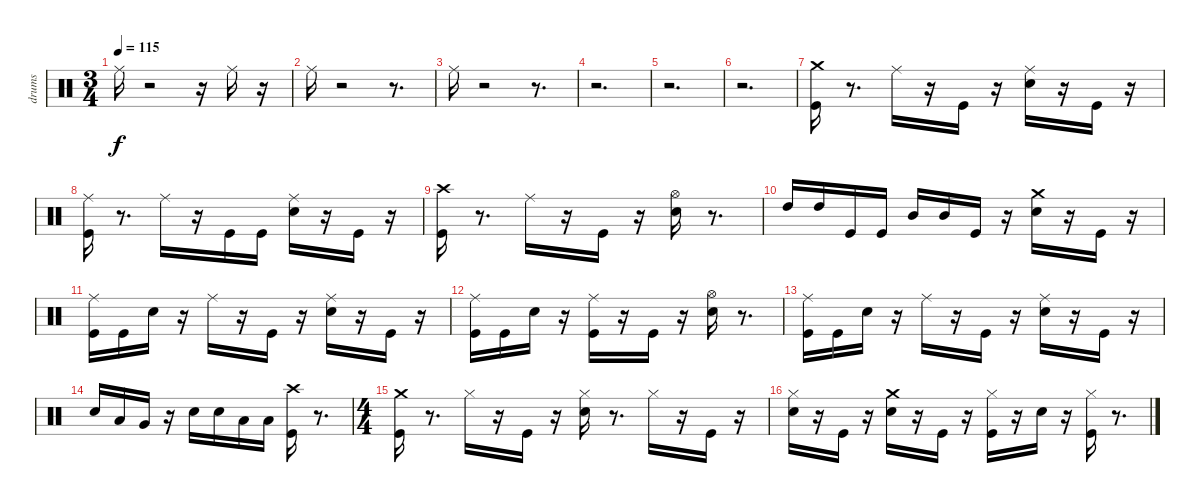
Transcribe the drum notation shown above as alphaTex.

\track ("drums" "drums") {instrument percussion}
\staff {score}
\articulation defaults
\ts (3 4)
\tempo 115
\clef neutral
\ks c "Ride (middle)".16{dy f}
r.2 r.16 "Ride (middle)".16 r.16 |
"Ride (middle)".16 r.2 r.8{d} |
"Ride (middle)".16 r.2 r.8{d} |
r.2{d} |
r.2{d} |
r.2{d} |
("Crash medium (hit)" "Kick (hit)").16 r.8{d} "Ride (middle)".16 r.16 "Kick (hit)".16 r.16 ("Ride (middle)" "Electric Snare (hit)").16 r.16 "Kick (hit)".16 r.16 |
("Ride (middle)" "Kick (hit)").16 r.8{d} "Ride (middle)".16 r.16 "Kick (hit)".16 "Kick (hit)".16 ("Ride (middle)" "Electric Snare (hit)").16 r.16 "Kick (hit)".16 r.16 |
("Crash high (hit)" "Kick (hit)").16 r.8{d} "Ride (middle)".16 r.16 "Kick (hit)".16 r.16 ("Hi-Hat (open)" "Electric Snare (hit)").16 r.8{d} |
"High Tom (hit)".16 "High Tom (hit)".16 "Kick (hit)".16 "Kick (hit)".16 "Mid Tom (hit)".16 "Mid Tom (hit)".16 "Kick (hit)".16 r.16 ("Crash medium (hit)" "Electric Snare (hit)").16 r.16 "Kick (hit)".16 r.16 |
("Ride (middle)" "Kick (hit)").16 "Kick (hit)".16 "Electric Snare (hit)".16 r.16 "Ride (middle)".16 r.16 "Kick (hit)".16 r.16 ("Electric Snare (hit)" "Ride (middle)").16 r.16 "Kick (hit)".16 r.16 |
("Ride (middle)" "Kick (hit)").16 "Kick (hit)".16 "Electric Snare (hit)".16 r.16 ("Ride (middle)" "Kick (hit)").16 r.16 "Kick (hit)".16 r.16 ("Hi-Hat (open)" "Electric Snare (hit)").16 r.8{d} |
("Ride (middle)" "Kick (hit)").16 "Kick (hit)".16 "Electric Snare (hit)".16 r.16 "Ride (middle)".16 r.16 "Kick (hit)".16 r.16 ("Electric Snare (hit)" "Ride (middle)").16 r.16 "Kick (hit)".16 r.16 |
"Electric Snare (hit)".16 "Low Tom (hit)".16 "Very Low Tom (hit)".16 r.16 "Electric Snare (hit)".16 "Electric Snare (hit)".16 "Low Tom (hit)".16 "Low Tom (hit)".16 ("Crash high (hit)" "Kick (hit)").16 r.8{d} |
\ts (4 4)
("Crash medium (hit)" "Kick (hit)").16 r.8{d} "Hi-Hat (closed)".16 r.16 "Kick (hit)".16 r.16 ("Electric Snare (hit)" "Hi-Hat (closed)").16 r.8{d} "Hi-Hat (closed)".16 r.16 "Kick (hit)".16 r.16 |
("Electric Snare (hit)" "Hi-Hat (closed)").16 r.16 "Kick (hit)".16 r.16 ("Snare (hit) 2" "Crash medium (hit)").16 r.16 "Kick (hit)".16 r.16 ("Kick (hit)" "Hi-Hat (closed)").16 r.16 "Electric Snare (hit)".16 r.16 ("Kick (hit)" "Hi-Hat (closed)").16 r.8{d}
